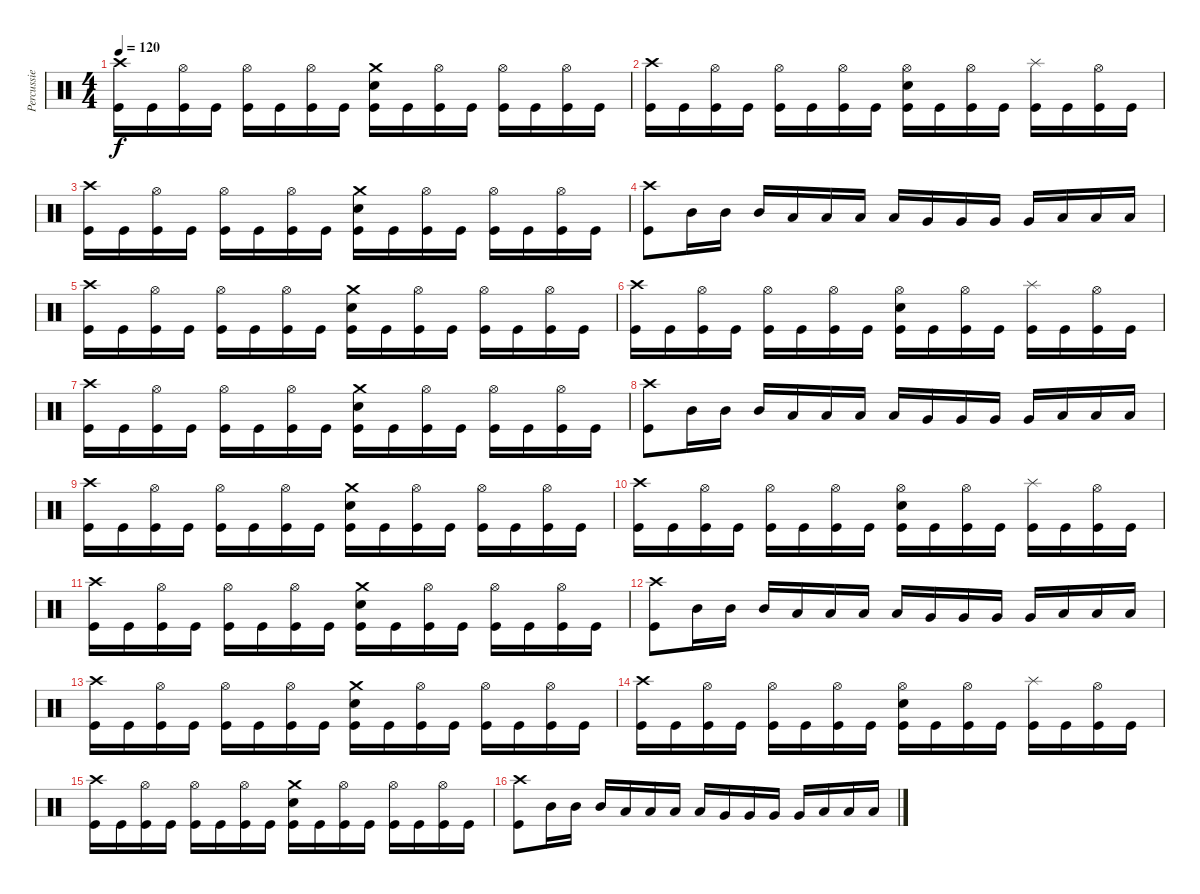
\track ("Percussie" "Percussie") {instrument percussion}
\staff {score}
\articulation defaults
\ts (4 4)
\tempo 120
\clef neutral
\ks c
("Crash high (hit)" "Kick (hit)").16{dy f} "Kick (hit)".16 ("Hi-Hat (open)" "Kick (hit)").16 "Kick (hit)".16 ("Hi-Hat (open)" "Kick (hit)").16 "Kick (hit)".16 ("Hi-Hat (open)" "Kick (hit)").16 "Kick (hit)".16 ("Crash medium (hit)" "Electric Snare (hit)" "Kick (hit)").16 "Kick (hit)".16 ("Hi-Hat (open)" "Kick (hit)").16 "Kick (hit)".16 ("Hi-Hat (open)" "Kick (hit)").16 "Kick (hit)".16 ("Hi-Hat (open)" "Kick (hit)").16 "Kick (hit)".16 |
("Crash high (hit)" "Kick (hit)").16 "Kick (hit)".16 ("Hi-Hat (open)" "Kick (hit)").16 "Kick (hit)".16 ("Hi-Hat (open)" "Kick (hit)").16 "Kick (hit)".16 ("Hi-Hat (open)" "Kick (hit)").16 "Kick (hit)".16 ("Hi-Hat (open)" "Electric Snare (hit)" "Kick (hit)").16 "Kick (hit)".16 ("Hi-Hat (open)" "Kick (hit)").16 "Kick (hit)".16 ("Splash (hit)" "Kick (hit)").16 "Kick (hit)".16 ("Hi-Hat (open)" "Kick (hit)").16 "Kick (hit)".16 |
("Crash high (hit)" "Kick (hit)").16 "Kick (hit)".16 ("Hi-Hat (open)" "Kick (hit)").16 "Kick (hit)".16 ("Hi-Hat (open)" "Kick (hit)").16 "Kick (hit)".16 ("Hi-Hat (open)" "Kick (hit)").16 "Kick (hit)".16 ("Crash medium (hit)" "Electric Snare (hit)" "Kick (hit)").16 "Kick (hit)".16 ("Hi-Hat (open)" "Kick (hit)").16 "Kick (hit)".16 ("Hi-Hat (open)" "Kick (hit)").16 "Kick (hit)".16 ("Hi-Hat (open)" "Kick (hit)").16 "Kick (hit)".16 |
("Crash high (hit)" "Kick (hit)").8 "Mid Tom (hit)".16 "Mid Tom (hit)".16 "Mid Tom (hit)".16 "Low Tom (hit)".16 "Low Tom (hit)".16 "Low Tom (hit)".16 "Low Tom (hit)".16 "Very Low Tom (hit)".16 "Very Low Tom (hit)".16 "Very Low Tom (hit)".16 "Very Low Tom (hit)".16 "Low Floor Tom (hit)".16 "Low Floor Tom (hit)".16 "Low Floor Tom (hit)".16 |
("Crash high (hit)" "Kick (hit)").16 "Kick (hit)".16 ("Hi-Hat (open)" "Kick (hit)").16 "Kick (hit)".16 ("Hi-Hat (open)" "Kick (hit)").16 "Kick (hit)".16 ("Hi-Hat (open)" "Kick (hit)").16 "Kick (hit)".16 ("Crash medium (hit)" "Electric Snare (hit)" "Kick (hit)").16 "Kick (hit)".16 ("Hi-Hat (open)" "Kick (hit)").16 "Kick (hit)".16 ("Hi-Hat (open)" "Kick (hit)").16 "Kick (hit)".16 ("Hi-Hat (open)" "Kick (hit)").16 "Kick (hit)".16 |
("Crash high (hit)" "Kick (hit)").16 "Kick (hit)".16 ("Hi-Hat (open)" "Kick (hit)").16 "Kick (hit)".16 ("Hi-Hat (open)" "Kick (hit)").16 "Kick (hit)".16 ("Hi-Hat (open)" "Kick (hit)").16 "Kick (hit)".16 ("Hi-Hat (open)" "Electric Snare (hit)" "Kick (hit)").16 "Kick (hit)".16 ("Hi-Hat (open)" "Kick (hit)").16 "Kick (hit)".16 ("Splash (hit)" "Kick (hit)").16 "Kick (hit)".16 ("Hi-Hat (open)" "Kick (hit)").16 "Kick (hit)".16 |
("Crash high (hit)" "Kick (hit)").16 "Kick (hit)".16 ("Hi-Hat (open)" "Kick (hit)").16 "Kick (hit)".16 ("Hi-Hat (open)" "Kick (hit)").16 "Kick (hit)".16 ("Hi-Hat (open)" "Kick (hit)").16 "Kick (hit)".16 ("Crash medium (hit)" "Electric Snare (hit)" "Kick (hit)").16 "Kick (hit)".16 ("Hi-Hat (open)" "Kick (hit)").16 "Kick (hit)".16 ("Hi-Hat (open)" "Kick (hit)").16 "Kick (hit)".16 ("Hi-Hat (open)" "Kick (hit)").16 "Kick (hit)".16 |
("Crash high (hit)" "Kick (hit)").8 "Mid Tom (hit)".16 "Mid Tom (hit)".16 "Mid Tom (hit)".16 "Low Tom (hit)".16 "Low Tom (hit)".16 "Low Tom (hit)".16 "Low Tom (hit)".16 "Very Low Tom (hit)".16 "Very Low Tom (hit)".16 "Very Low Tom (hit)".16 "Very Low Tom (hit)".16 "Low Floor Tom (hit)".16 "Low Floor Tom (hit)".16 "Low Floor Tom (hit)".16 |
("Crash high (hit)" "Kick (hit)").16 "Kick (hit)".16 ("Hi-Hat (open)" "Kick (hit)").16 "Kick (hit)".16 ("Hi-Hat (open)" "Kick (hit)").16 "Kick (hit)".16 ("Hi-Hat (open)" "Kick (hit)").16 "Kick (hit)".16 ("Crash medium (hit)" "Electric Snare (hit)" "Kick (hit)").16 "Kick (hit)".16 ("Hi-Hat (open)" "Kick (hit)").16 "Kick (hit)".16 ("Hi-Hat (open)" "Kick (hit)").16 "Kick (hit)".16 ("Hi-Hat (open)" "Kick (hit)").16 "Kick (hit)".16 |
("Crash high (hit)" "Kick (hit)").16 "Kick (hit)".16 ("Hi-Hat (open)" "Kick (hit)").16 "Kick (hit)".16 ("Hi-Hat (open)" "Kick (hit)").16 "Kick (hit)".16 ("Hi-Hat (open)" "Kick (hit)").16 "Kick (hit)".16 ("Hi-Hat (open)" "Electric Snare (hit)" "Kick (hit)").16 "Kick (hit)".16 ("Hi-Hat (open)" "Kick (hit)").16 "Kick (hit)".16 ("Splash (hit)" "Kick (hit)").16 "Kick (hit)".16 ("Hi-Hat (open)" "Kick (hit)").16 "Kick (hit)".16 |
("Crash high (hit)" "Kick (hit)").16 "Kick (hit)".16 ("Hi-Hat (open)" "Kick (hit)").16 "Kick (hit)".16 ("Hi-Hat (open)" "Kick (hit)").16 "Kick (hit)".16 ("Hi-Hat (open)" "Kick (hit)").16 "Kick (hit)".16 ("Crash medium (hit)" "Electric Snare (hit)" "Kick (hit)").16 "Kick (hit)".16 ("Hi-Hat (open)" "Kick (hit)").16 "Kick (hit)".16 ("Hi-Hat (open)" "Kick (hit)").16 "Kick (hit)".16 ("Hi-Hat (open)" "Kick (hit)").16 "Kick (hit)".16 |
("Crash high (hit)" "Kick (hit)").8 "Mid Tom (hit)".16 "Mid Tom (hit)".16 "Mid Tom (hit)".16 "Low Tom (hit)".16 "Low Tom (hit)".16 "Low Tom (hit)".16 "Low Tom (hit)".16 "Very Low Tom (hit)".16 "Very Low Tom (hit)".16 "Very Low Tom (hit)".16 "Very Low Tom (hit)".16 "Low Floor Tom (hit)".16 "Low Floor Tom (hit)".16 "Low Floor Tom (hit)".16 |
("Crash high (hit)" "Kick (hit)").16 "Kick (hit)".16 ("Hi-Hat (open)" "Kick (hit)").16 "Kick (hit)".16 ("Hi-Hat (open)" "Kick (hit)").16 "Kick (hit)".16 ("Hi-Hat (open)" "Kick (hit)").16 "Kick (hit)".16 ("Crash medium (hit)" "Electric Snare (hit)" "Kick (hit)").16 "Kick (hit)".16 ("Hi-Hat (open)" "Kick (hit)").16 "Kick (hit)".16 ("Hi-Hat (open)" "Kick (hit)").16 "Kick (hit)".16 ("Hi-Hat (open)" "Kick (hit)").16 "Kick (hit)".16 |
("Crash high (hit)" "Kick (hit)").16 "Kick (hit)".16 ("Hi-Hat (open)" "Kick (hit)").16 "Kick (hit)".16 ("Hi-Hat (open)" "Kick (hit)").16 "Kick (hit)".16 ("Hi-Hat (open)" "Kick (hit)").16 "Kick (hit)".16 ("Hi-Hat (open)" "Electric Snare (hit)" "Kick (hit)").16 "Kick (hit)".16 ("Hi-Hat (open)" "Kick (hit)").16 "Kick (hit)".16 ("Splash (hit)" "Kick (hit)").16 "Kick (hit)".16 ("Hi-Hat (open)" "Kick (hit)").16 "Kick (hit)".16 |
("Crash high (hit)" "Kick (hit)").16 "Kick (hit)".16 ("Hi-Hat (open)" "Kick (hit)").16 "Kick (hit)".16 ("Hi-Hat (open)" "Kick (hit)").16 "Kick (hit)".16 ("Hi-Hat (open)" "Kick (hit)").16 "Kick (hit)".16 ("Crash medium (hit)" "Electric Snare (hit)" "Kick (hit)").16 "Kick (hit)".16 ("Hi-Hat (open)" "Kick (hit)").16 "Kick (hit)".16 ("Hi-Hat (open)" "Kick (hit)").16 "Kick (hit)".16 ("Hi-Hat (open)" "Kick (hit)").16 "Kick (hit)".16 |
("Crash high (hit)" "Kick (hit)").8 "Mid Tom (hit)".16 "Mid Tom (hit)".16 "Mid Tom (hit)".16 "Low Tom (hit)".16 "Low Tom (hit)".16 "Low Tom (hit)".16 "Low Tom (hit)".16 "Very Low Tom (hit)".16 "Very Low Tom (hit)".16 "Very Low Tom (hit)".16 "Very Low Tom (hit)".16 "Low Floor Tom (hit)".16 "Low Floor Tom (hit)".16 "Low Floor Tom (hit)".16
